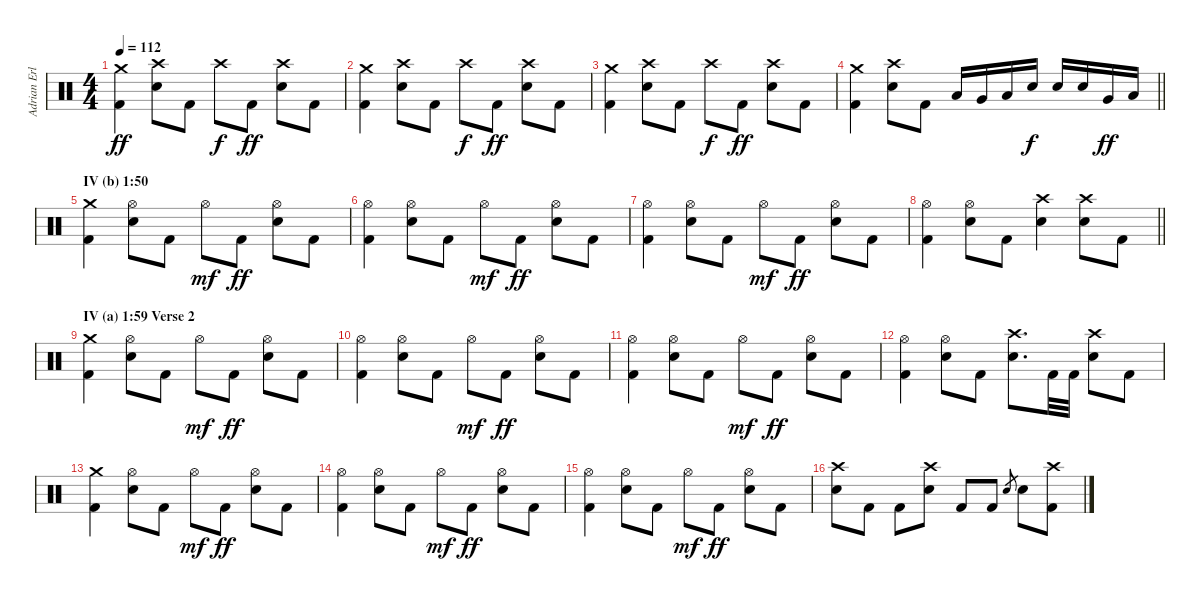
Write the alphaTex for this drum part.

\track ("Adrian Erlandsson (Drums)" "Adrian Erl") {instrument percussion}
\staff {score}
\articulation defaults
\ts (4 4)
\tempo 112
\clef neutral
\ks c
("Crash medium (hit)" "Kick (hit) 2").4{dy ff} ("Crash high (hit)" "Electric Snare (hit)").8 "Kick (hit) 2".8 "Crash high (hit)".8{dy f} "Kick (hit) 2".8{dy ff} ("Crash high (hit)" "Electric Snare (hit)").8 "Kick (hit) 2".8 |
("Crash medium (hit)" "Kick (hit) 2").4 ("Crash high (hit)" "Electric Snare (hit)").8 "Kick (hit) 2".8 "Crash high (hit)".8{dy f} "Kick (hit) 2".8{dy ff} ("Crash high (hit)" "Electric Snare (hit)").8 "Kick (hit) 2".8 |
("Crash medium (hit)" "Kick (hit) 2").4 ("Crash high (hit)" "Electric Snare (hit)").8 "Kick (hit) 2".8 "Crash high (hit)".8{dy f} "Kick (hit) 2".8{dy ff} ("Crash high (hit)" "Electric Snare (hit)").8 "Kick (hit) 2".8 |
\barLineRight lightlight
("Crash medium (hit)" "Kick (hit) 2").4 ("Crash high (hit)" "Electric Snare (hit)").8 "Kick (hit) 2".8 "Low Tom (hit)".16 "Very Low Tom (hit)".16 "Low Floor Tom (hit)".16 "Electric Snare (hit)".16{dy f} "Electric Snare (hit)".16 "Electric Snare (hit)".16 "Very Low Tom (hit)".16{dy ff} "Low Floor Tom (hit)".16 |
\section ("" "IV (b) 1:50")
("Crash medium (hit)" "Kick (hit) 2").4 ("Hi-Hat (open)" "Electric Snare (hit)").8 "Kick (hit) 2".8 "Hi-Hat (open)".8{dy mf} "Kick (hit) 2".8{dy ff} ("Hi-Hat (open)" "Electric Snare (hit)").8 "Kick (hit) 2".8 |
("Hi-Hat (open)" "Kick (hit) 2").4 ("Hi-Hat (open)" "Electric Snare (hit)").8 "Kick (hit) 2".8 "Hi-Hat (open)".8{dy mf} "Kick (hit) 2".8{dy ff} ("Hi-Hat (open)" "Electric Snare (hit)").8 "Kick (hit) 2".8 |
("Hi-Hat (open)" "Kick (hit) 2").4 ("Hi-Hat (open)" "Electric Snare (hit)").8 "Kick (hit) 2".8 "Hi-Hat (open)".8{dy mf} "Kick (hit) 2".8{dy ff} ("Hi-Hat (open)" "Electric Snare (hit)").8 "Kick (hit) 2".8 |
\barLineRight lightlight
("Hi-Hat (open)" "Kick (hit) 2").4 ("Hi-Hat (open)" "Electric Snare (hit)").8 "Kick (hit) 2".8 ("Crash high (hit)" "Electric Snare (hit)").4 ("Crash high (hit)" "Electric Snare (hit)").8 "Kick (hit) 2".8 |
\section ("" "IV (a) 1:59 Verse 2")
("Crash medium (hit)" "Kick (hit) 2").4 ("Hi-Hat (open)" "Electric Snare (hit)").8 "Kick (hit) 2".8 "Hi-Hat (open)".8{dy mf} "Kick (hit) 2".8{dy ff} ("Hi-Hat (open)" "Electric Snare (hit)").8 "Kick (hit) 2".8 |
("Hi-Hat (open)" "Kick (hit) 2").4 ("Hi-Hat (open)" "Electric Snare (hit)").8 "Kick (hit) 2".8 "Hi-Hat (open)".8{dy mf} "Kick (hit) 2".8{dy ff} ("Hi-Hat (open)" "Electric Snare (hit)").8 "Kick (hit) 2".8 |
("Hi-Hat (open)" "Kick (hit) 2").4 ("Hi-Hat (open)" "Electric Snare (hit)").8 "Kick (hit) 2".8 "Hi-Hat (open)".8{dy mf} "Kick (hit) 2".8{dy ff} ("Hi-Hat (open)" "Electric Snare (hit)").8 "Kick (hit) 2".8 |
("Hi-Hat (open)" "Kick (hit) 2").4 ("Hi-Hat (open)" "Electric Snare (hit)").8 "Kick (hit) 2".8 ("Crash high (hit)" "Electric Snare (hit)").8{d} "Kick (hit) 2".32 "Kick (hit) 2".32 ("Crash high (hit)" "Electric Snare (hit)").8 "Kick (hit) 2".8 |
("Crash medium (hit)" "Kick (hit) 2").4 ("Hi-Hat (open)" "Electric Snare (hit)").8 "Kick (hit) 2".8 "Hi-Hat (open)".8{dy mf} "Kick (hit) 2".8{dy ff} ("Hi-Hat (open)" "Electric Snare (hit)").8 "Kick (hit) 2".8 |
("Hi-Hat (open)" "Kick (hit) 2").4 ("Hi-Hat (open)" "Electric Snare (hit)").8 "Kick (hit) 2".8 "Hi-Hat (open)".8{dy mf} "Kick (hit) 2".8{dy ff} ("Hi-Hat (open)" "Electric Snare (hit)").8 "Kick (hit) 2".8 |
("Hi-Hat (open)" "Kick (hit) 2").4 ("Hi-Hat (open)" "Electric Snare (hit)").8 "Kick (hit) 2".8 "Hi-Hat (open)".8{dy mf} "Kick (hit) 2".8{dy ff} ("Hi-Hat (open)" "Electric Snare (hit)").8 "Kick (hit) 2".8 |
("Crash high (hit)" "Electric Snare (hit)").8 "Kick (hit) 2".8 "Kick (hit) 2".8 ("Crash high (hit)" "Electric Snare (hit)").8 "Kick (hit) 2".8 "Kick (hit) 2".8 "Electric Snare (hit)".8{gr} "Electric Snare (hit)".8 ("Crash high (hit)" "Kick (hit) 2").8
